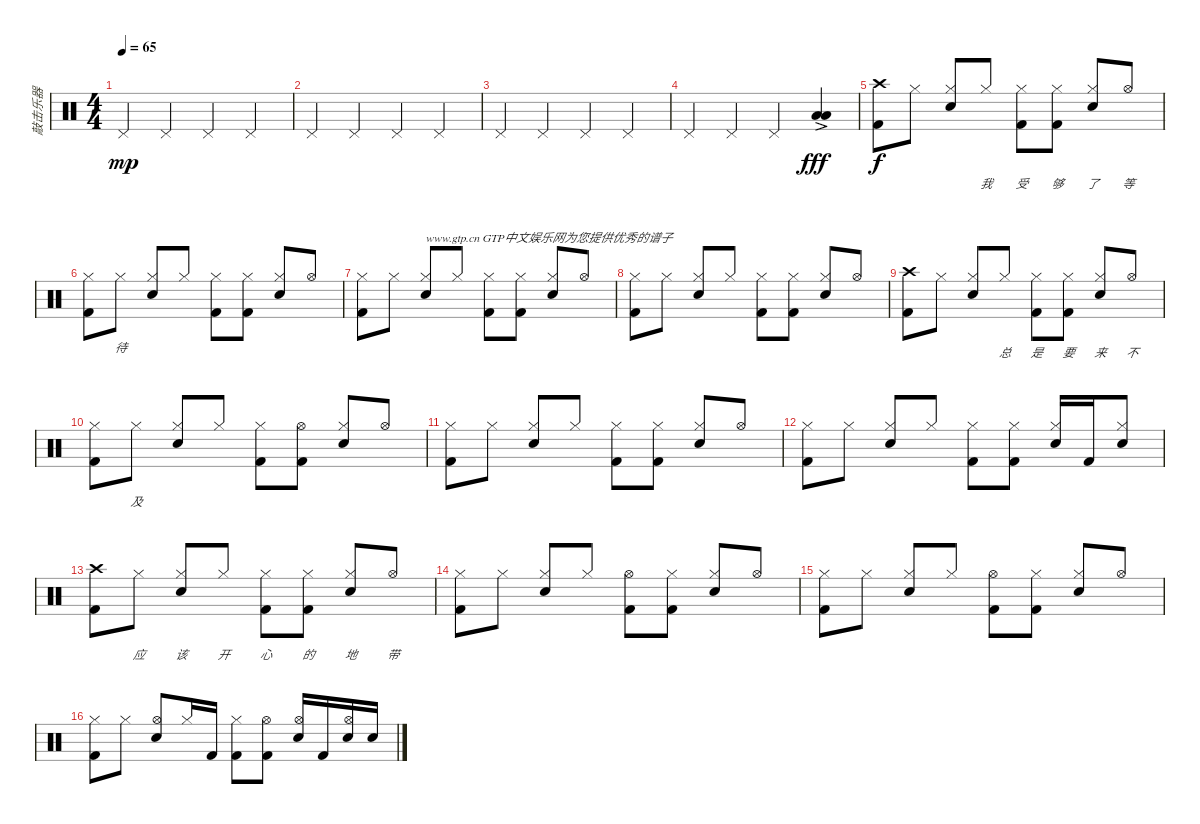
\track ("敲击乐器" "敲击乐器") {instrument percussion}
\staff {score}
\articulation defaults
\ts (4 4)
\tempo 65
\clef neutral
\ks c "Pedal Hi-Hat (hit)".4{dy mp} "Pedal Hi-Hat (hit)".4 "Pedal Hi-Hat (hit)".4 "Pedal Hi-Hat (hit)".4
|
"Pedal Hi-Hat (hit)".4 "Pedal Hi-Hat (hit)".4 "Pedal Hi-Hat (hit)".4 "Pedal Hi-Hat (hit)".4 |
"Pedal Hi-Hat (hit)".4 "Pedal Hi-Hat (hit)".4 "Pedal Hi-Hat (hit)".4 "Pedal Hi-Hat (hit)".4 |
"Pedal Hi-Hat (hit)".4 "Pedal Hi-Hat (hit)".4 "Pedal Hi-Hat (hit)".4 ("Low Tom (hit)" "Low Floor Tom (hit)"{ac}).4{dy fff} |
("Crash high (hit)" "Kick (hit) 2").8{lyrics (0 "") lyrics (1 "") lyrics (2 "") lyrics (3 "") lyrics (4 "") dy f beam Down} "Hi-Hat (closed)".8{lyrics (0 "") lyrics (1 "") lyrics (2 "") lyrics (3 "") lyrics (4 "") beam Down} ("Hi-Hat (closed)" "Electric Snare (hit)").8{lyrics (0 "") lyrics (1 "") lyrics (2 "") lyrics (3 "") lyrics (4 "") beam Up} "Hi-Hat (closed)".8{lyrics (0 "我") lyrics (1 "") lyrics (2 "") lyrics (3 "") lyrics (4 "") beam Up} ("Hi-Hat (closed)" "Kick (hit) 2").8{lyrics (0 "受") lyrics (1 "") lyrics (2 "") lyrics (3 "") lyrics (4 "") beam Down} ("Hi-Hat (closed)" "Kick (hit) 2").8{lyrics (0 "够") lyrics (1 "") lyrics (2 "") lyrics (3 "") lyrics (4 "") beam Down} ("Hi-Hat (closed)" "Electric Snare (hit)").8{lyrics (0 "了") lyrics (1 "") lyrics (2 "") lyrics (3 "") lyrics (4 "") beam Up} "Hi-Hat (open)".8{lyrics (0 "等") lyrics (1 "") lyrics (2 "") lyrics (3 "") lyrics (4 "") beam Up} |
("Hi-Hat (closed)" "Kick (hit) 2").8{lyrics (0 "") lyrics (1 "") lyrics (2 "") lyrics (3 "") lyrics (4 "") beam Down} "Hi-Hat (closed)".8{lyrics (0 "待") lyrics (1 "") lyrics (2 "") lyrics (3 "") lyrics (4 "") beam Down} ("Hi-Hat (closed)" "Electric Snare (hit)").8{beam Up} "Hi-Hat (closed)".8{beam Up} ("Hi-Hat (closed)" "Kick (hit) 2").8{beam Down} ("Hi-Hat (closed)" "Kick (hit) 2").8{beam Down} ("Hi-Hat (closed)" "Electric Snare (hit)").8{beam Up} "Hi-Hat (open)".8{beam Up} |
("Hi-Hat (closed)" "Kick (hit) 2").8{beam Down} "Hi-Hat (closed)".8{beam Down} ("Hi-Hat (closed)" "Electric Snare (hit)").8{txt "www.gtp.cn GTP中文娱乐网为您提供优秀的谱子" beam Up} "Hi-Hat (closed)".8{beam Up} ("Hi-Hat (closed)" "Kick (hit) 2").8{beam Down} ("Hi-Hat (closed)" "Kick (hit) 2").8{beam Down} ("Hi-Hat (closed)" "Electric Snare (hit)").8{beam Up} "Hi-Hat (open)".8{beam Up} |
("Hi-Hat (closed)" "Kick (hit) 2").8{beam Down} "Hi-Hat (closed)".8{beam Down} ("Hi-Hat (closed)" "Electric Snare (hit)").8{beam Up} "Hi-Hat (closed)".8{beam Up} ("Hi-Hat (closed)" "Kick (hit) 2").8{beam Down} ("Hi-Hat (closed)" "Kick (hit) 2").8{beam Down} ("Hi-Hat (closed)" "Electric Snare (hit)").8{beam Up} "Hi-Hat (open)".8{beam Up} |
("Crash high (hit)" "Kick (hit) 2").8{lyrics (0 "") lyrics (1 "") lyrics (2 "") lyrics (3 "") lyrics (4 "") beam Down} "Hi-Hat (closed)".8{lyrics (0 "") lyrics (1 "") lyrics (2 "") lyrics (3 "") lyrics (4 "") beam Down} ("Hi-Hat (closed)" "Electric Snare (hit)").8{lyrics (0 "") lyrics (1 "") lyrics (2 "") lyrics (3 "") lyrics (4 "") beam Up} "Hi-Hat (closed)".8{lyrics (0 "") lyrics (1 "总") lyrics (2 "") lyrics (3 "") lyrics (4 "") beam Up} ("Hi-Hat (closed)" "Kick (hit) 2").8{lyrics (0 "") lyrics (1 "是") lyrics (2 "") lyrics (3 "") lyrics (4 "") beam Down} ("Hi-Hat (closed)" "Kick (hit) 2").8{lyrics (0 "") lyrics (1 "要") lyrics (2 "") lyrics (3 "") lyrics (4 "") beam Down} ("Hi-Hat (closed)" "Electric Snare (hit)").8{lyrics (0 "") lyrics (1 "来") lyrics (2 "") lyrics (3 "") lyrics (4 "") beam Up} "Hi-Hat (open)".8{lyrics (0 "") lyrics (1 "不") lyrics (2 "") lyrics (3 "") lyrics (4 "") beam Up} |
("Hi-Hat (closed)" "Kick (hit) 2").8{lyrics (0 "") lyrics (1 "") lyrics (2 "") lyrics (3 "") lyrics (4 "") beam Down} "Hi-Hat (closed)".8{lyrics (0 "") lyrics (1 "及") lyrics (2 "") lyrics (3 "") lyrics (4 "") beam Down} ("Hi-Hat (closed)" "Electric Snare (hit)").8{beam Up} "Hi-Hat (closed)".8{beam Up} ("Hi-Hat (closed)" "Kick (hit) 2").8{beam Down} ("Hi-Hat (open)" "Kick (hit) 2").8{beam Down} ("Hi-Hat (closed)" "Electric Snare (hit)").8{beam Up} "Hi-Hat (open)".8{beam Up} |
("Hi-Hat (closed)" "Kick (hit) 2").8{beam Down} "Hi-Hat (closed)".8{beam Down} ("Hi-Hat (closed)" "Electric Snare (hit)").8{beam Up} "Hi-Hat (closed)".8{beam Up} ("Hi-Hat (closed)" "Kick (hit) 2").8{beam Down} ("Hi-Hat (closed)" "Kick (hit) 2").8{beam Down} ("Hi-Hat (closed)" "Electric Snare (hit)").8{beam Up} "Hi-Hat (open)".8{beam Up} |
("Hi-Hat (closed)" "Kick (hit) 2").8{beam Down} "Hi-Hat (closed)".8{beam Down} ("Hi-Hat (closed)" "Electric Snare (hit)").8{beam Up} "Hi-Hat (closed)".8{beam Up} ("Hi-Hat (closed)" "Kick (hit) 2").8{beam Down} ("Hi-Hat (closed)" "Kick (hit) 2").8{beam Down} ("Hi-Hat (closed)" "Electric Snare (hit)").16{beam Up} "Kick (hit) 2".16{beam Up} ("Hi-Hat (closed)" "Electric Snare (hit)").8{beam Up} |
("Crash high (hit)" "Kick (hit) 2").8{lyrics (0 "") lyrics (1 "") lyrics (2 "") lyrics (3 "") lyrics (4 "") beam Down} "Hi-Hat (closed)".8{lyrics (0 "") lyrics (1 "") lyrics (2 "应") lyrics (3 "") lyrics (4 "") beam Down} ("Hi-Hat (closed)" "Electric Snare (hit)").8{lyrics (0 "") lyrics (1 "") lyrics (2 "该") lyrics (3 "") lyrics (4 "") beam Up} "Hi-Hat (closed)".8{lyrics (0 "") lyrics (1 "") lyrics (2 "开") lyrics (3 "") lyrics (4 "") beam Up} ("Hi-Hat (closed)" "Kick (hit) 2").8{lyrics (0 "") lyrics (1 "") lyrics (2 "心") lyrics (3 "") lyrics (4 "") beam Down} ("Hi-Hat (closed)" "Kick (hit) 2").8{lyrics (0 "") lyrics (1 "") lyrics (2 "的") lyrics (3 "") lyrics (4 "") beam Down} ("Hi-Hat (closed)" "Electric Snare (hit)").8{lyrics (0 "") lyrics (1 "") lyrics (2 "地") lyrics (3 "") lyrics (4 "") beam Up} "Hi-Hat (open)".8{lyrics (0 "") lyrics (1 "") lyrics (2 "带") lyrics (3 "") lyrics (4 "") beam Up} |
("Hi-Hat (closed)" "Kick (hit) 2").8{beam Down} "Hi-Hat (closed)".8{beam Down} ("Hi-Hat (closed)" "Electric Snare (hit)").8{beam Up} "Hi-Hat (closed)".8{beam Up} ("Hi-Hat (open)" "Kick (hit) 2").8{beam Down} ("Hi-Hat (closed)" "Kick (hit) 2").8{beam Down} ("Hi-Hat (closed)" "Electric Snare (hit)").8{beam Up} "Hi-Hat (open)".8{beam Up} |
("Hi-Hat (closed)" "Kick (hit) 2").8{beam Down} "Hi-Hat (closed)".8{beam Down} ("Hi-Hat (closed)" "Electric Snare (hit)").8{beam Up} "Hi-Hat (closed)".8{beam Up} ("Hi-Hat (open)" "Kick (hit) 2").8{beam Down} ("Hi-Hat (closed)" "Kick (hit) 2").8{beam Down} ("Hi-Hat (closed)" "Electric Snare (hit)").8{beam Up} "Hi-Hat (open)".8{beam Up} |
("Hi-Hat (closed)" "Kick (hit) 2").8{beam Down} "Hi-Hat (closed)".8{beam Down} ("Hi-Hat (open)" "Electric Snare (hit)").8{beam Up} "Hi-Hat (closed)".16{beam Up} "Kick (hit) 2".16{beam Up} ("Hi-Hat (closed)" "Kick (hit) 2").8{beam Down} ("Hi-Hat (open)" "Kick (hit) 2").8{beam Down} ("Hi-Hat (open)" "Electric Snare (hit)").16{beam Up} "Kick (hit) 2".16{beam Up} ("Hi-Hat (open)" "Electric Snare (hit)").16{beam Up} "Electric Snare (hit)".16{beam Up}
